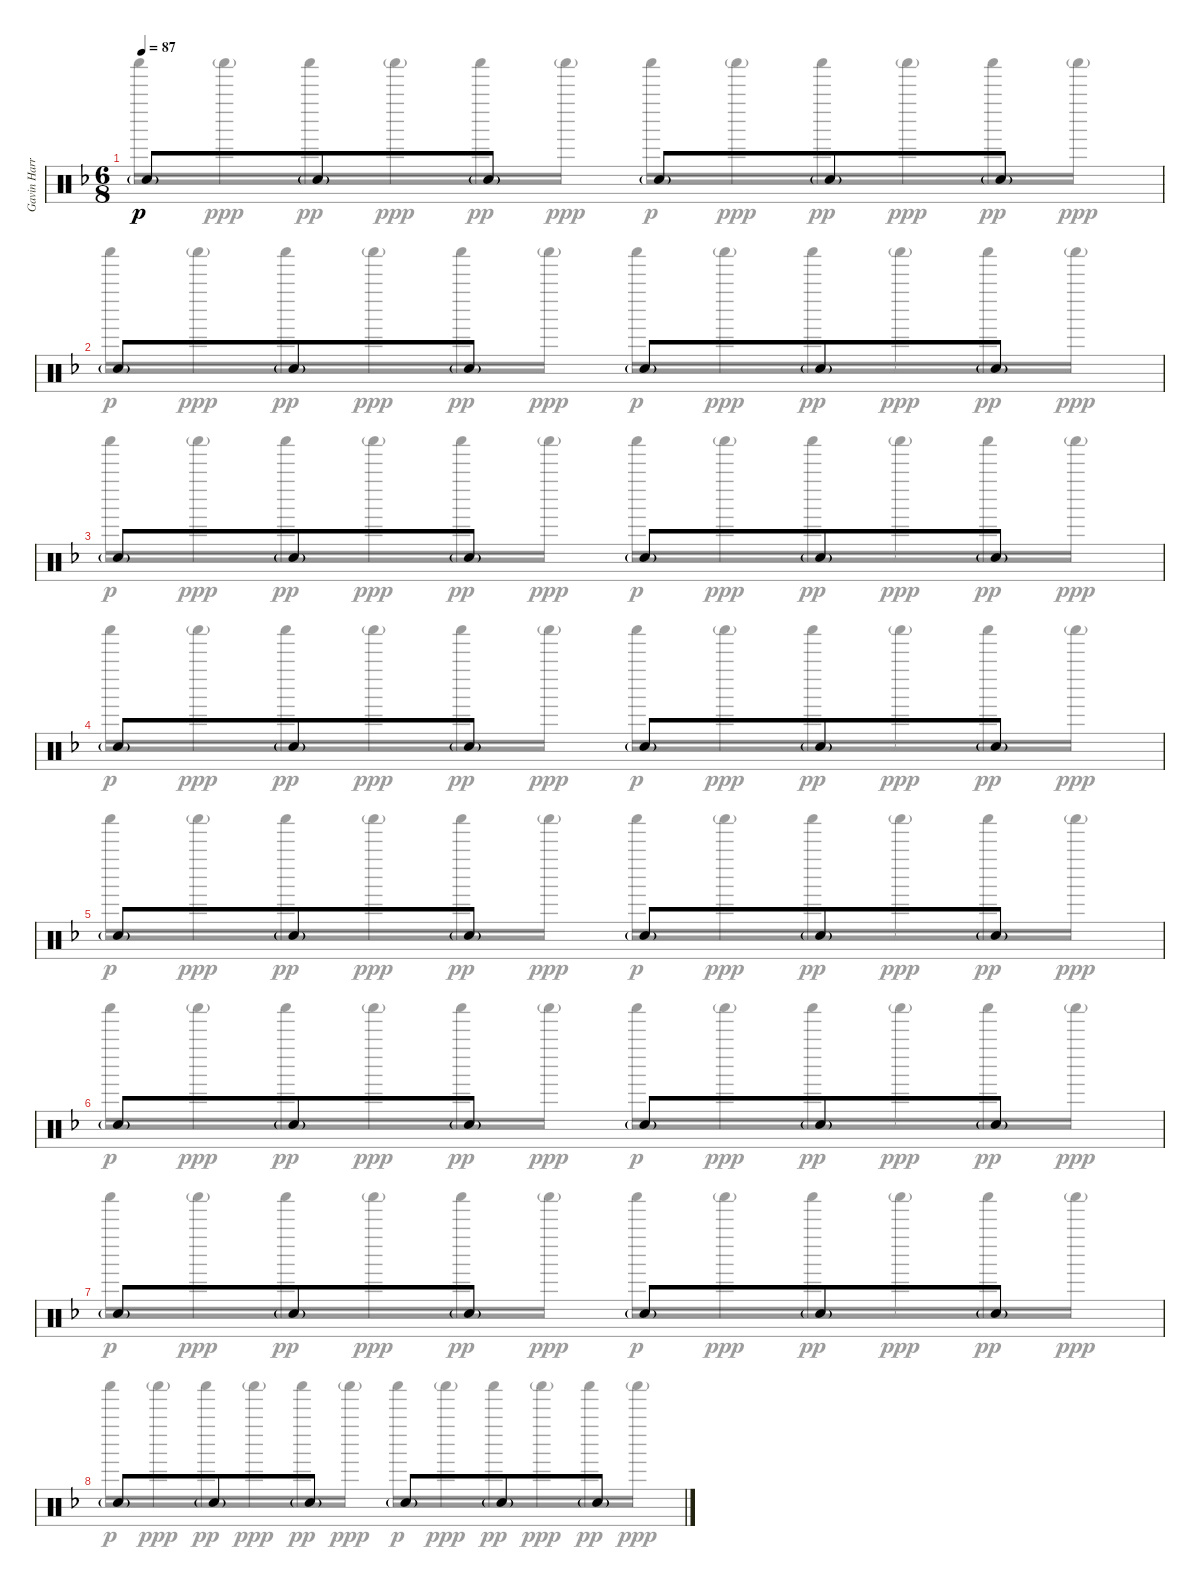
\track ("Gavin Harrison Drums" "Gavin Harr") {instrument percussion}
\staff {score}
\articulation defaults
\voice
\ts (6 8)
\tempo 87
\clef neutral
\ks f "Hand Clap (hit)"{g}.8{dy p} "Hand Clap (hit)"{g}.8 "Hand Clap (hit)"{g}.8 "Hand Clap (hit)"{g}.8 "Hand Clap (hit)"{g}.8 "Hand Clap (hit)"{g}.8
|
"Hand Clap (hit)"{g}.8 "Hand Clap (hit)"{g}.8 "Hand Clap (hit)"{g}.8 "Hand Clap (hit)"{g}.8 "Hand Clap (hit)"{g}.8 "Hand Clap (hit)"{g}.8 |
"Hand Clap (hit)"{g}.8 "Hand Clap (hit)"{g}.8 "Hand Clap (hit)"{g}.8 "Hand Clap (hit)"{g}.8 "Hand Clap (hit)"{g}.8 "Hand Clap (hit)"{g}.8 |
"Hand Clap (hit)"{g}.8 "Hand Clap (hit)"{g}.8 "Hand Clap (hit)"{g}.8 "Hand Clap (hit)"{g}.8 "Hand Clap (hit)"{g}.8 "Hand Clap (hit)"{g}.8 |
"Hand Clap (hit)"{g}.8 "Hand Clap (hit)"{g}.8 "Hand Clap (hit)"{g}.8 "Hand Clap (hit)"{g}.8 "Hand Clap (hit)"{g}.8 "Hand Clap (hit)"{g}.8 |
"Hand Clap (hit)"{g}.8 "Hand Clap (hit)"{g}.8 "Hand Clap (hit)"{g}.8 "Hand Clap (hit)"{g}.8 "Hand Clap (hit)"{g}.8 "Hand Clap (hit)"{g}.8 |
"Hand Clap (hit)"{g}.8 "Hand Clap (hit)"{g}.8 "Hand Clap (hit)"{g}.8 "Hand Clap (hit)"{g}.8 "Hand Clap (hit)"{g}.8 "Hand Clap (hit)"{g}.8 |
"Hand Clap (hit)"{g}.8 "Hand Clap (hit)"{g}.8 "Hand Clap (hit)"{g}.8 "Hand Clap (hit)"{g}.8 "Hand Clap (hit)"{g}.8 "Hand Clap (hit)"{g}.8
\voice
\clef neutral
\ottava regular
\simile none
\ks f "Shaker (hit)".16{dy p} "Shaker (hit)"{g}.16{dy ppp} "Shaker (hit)".16{dy pp} "Shaker (hit)"{g}.16{dy ppp} "Shaker (hit)".16{dy pp} "Shaker (hit)"{g}.16{dy ppp} "Shaker (hit)".16{dy p} "Shaker (hit)"{g}.16{dy ppp} "Shaker (hit)".16{dy pp} "Shaker (hit)"{g}.16{dy ppp} "Shaker (hit)".16{dy pp} "Shaker (hit)"{g}.16{dy ppp}
|
"Shaker (hit)".16{dy p} "Shaker (hit)"{g}.16{dy ppp} "Shaker (hit)".16{dy pp} "Shaker (hit)"{g}.16{dy ppp} "Shaker (hit)".16{dy pp} "Shaker (hit)"{g}.16{dy ppp} "Shaker (hit)".16{dy p} "Shaker (hit)"{g}.16{dy ppp} "Shaker (hit)".16{dy pp} "Shaker (hit)"{g}.16{dy ppp} "Shaker (hit)".16{dy pp} "Shaker (hit)"{g}.16{dy ppp} |
"Shaker (hit)".16{dy p} "Shaker (hit)"{g}.16{dy ppp} "Shaker (hit)".16{dy pp} "Shaker (hit)"{g}.16{dy ppp} "Shaker (hit)".16{dy pp} "Shaker (hit)"{g}.16{dy ppp} "Shaker (hit)".16{dy p} "Shaker (hit)"{g}.16{dy ppp} "Shaker (hit)".16{dy pp} "Shaker (hit)"{g}.16{dy ppp} "Shaker (hit)".16{dy pp} "Shaker (hit)"{g}.16{dy ppp} |
"Shaker (hit)".16{dy p} "Shaker (hit)"{g}.16{dy ppp} "Shaker (hit)".16{dy pp} "Shaker (hit)"{g}.16{dy ppp} "Shaker (hit)".16{dy pp} "Shaker (hit)"{g}.16{dy ppp} "Shaker (hit)".16{dy p} "Shaker (hit)"{g}.16{dy ppp} "Shaker (hit)".16{dy pp} "Shaker (hit)"{g}.16{dy ppp} "Shaker (hit)".16{dy pp} "Shaker (hit)"{g}.16{dy ppp} |
"Shaker (hit)".16{dy p} "Shaker (hit)"{g}.16{dy ppp} "Shaker (hit)".16{dy pp} "Shaker (hit)"{g}.16{dy ppp} "Shaker (hit)".16{dy pp} "Shaker (hit)"{g}.16{dy ppp} "Shaker (hit)".16{dy p} "Shaker (hit)"{g}.16{dy ppp} "Shaker (hit)".16{dy pp} "Shaker (hit)"{g}.16{dy ppp} "Shaker (hit)".16{dy pp} "Shaker (hit)"{g}.16{dy ppp} |
"Shaker (hit)".16{dy p} "Shaker (hit)"{g}.16{dy ppp} "Shaker (hit)".16{dy pp} "Shaker (hit)"{g}.16{dy ppp} "Shaker (hit)".16{dy pp} "Shaker (hit)"{g}.16{dy ppp} "Shaker (hit)".16{dy p} "Shaker (hit)"{g}.16{dy ppp} "Shaker (hit)".16{dy pp} "Shaker (hit)"{g}.16{dy ppp} "Shaker (hit)".16{dy pp} "Shaker (hit)"{g}.16{dy ppp} |
"Shaker (hit)".16{dy p} "Shaker (hit)"{g}.16{dy ppp} "Shaker (hit)".16{dy pp} "Shaker (hit)"{g}.16{dy ppp} "Shaker (hit)".16{dy pp} "Shaker (hit)"{g}.16{dy ppp} "Shaker (hit)".16{dy p} "Shaker (hit)"{g}.16{dy ppp} "Shaker (hit)".16{dy pp} "Shaker (hit)"{g}.16{dy ppp} "Shaker (hit)".16{dy pp} "Shaker (hit)"{g}.16{dy ppp} |
"Shaker (hit)".16{dy p} "Shaker (hit)"{g}.16{dy ppp} "Shaker (hit)".16{dy pp} "Shaker (hit)"{g}.16{dy ppp} "Shaker (hit)".16{dy pp} "Shaker (hit)"{g}.16{dy ppp} "Shaker (hit)".16{dy p} "Shaker (hit)"{g}.16{dy ppp} "Shaker (hit)".16{dy pp} "Shaker (hit)"{g}.16{dy ppp} "Shaker (hit)".16{dy pp} "Shaker (hit)"{g}.16{dy ppp}
